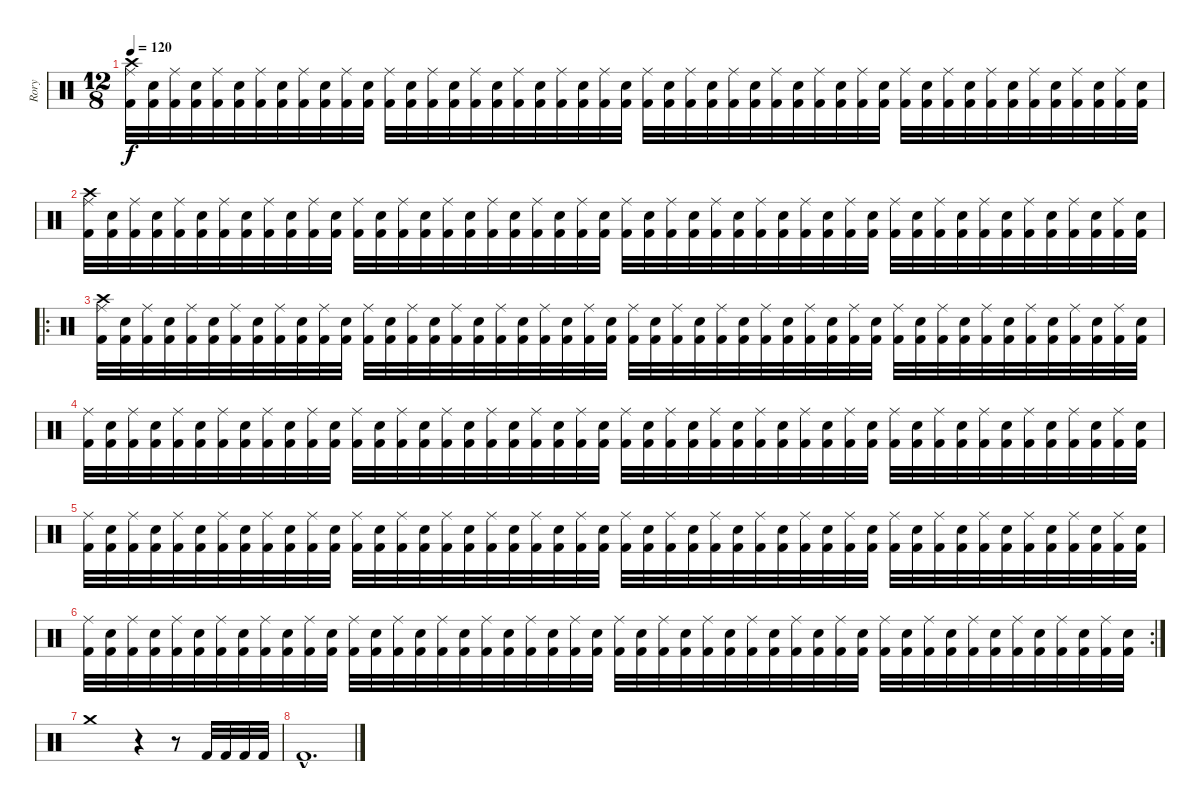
\track ("Rory" "Rory") {instrument percussion}
\staff {score}
\articulation defaults
\ts (12 8)
\tempo 120
\clef neutral
\ks c
("Kick (hit) 2" "Crash high (hit)" "Ride (middle)").32{dy f} ("Kick (hit) 2" "Electric Snare (hit)").32 ("Kick (hit) 2" "Ride (middle)").32 ("Kick (hit) 2" "Electric Snare (hit)").32 ("Kick (hit) 2" "Ride (middle)").32 ("Kick (hit) 2" "Electric Snare (hit)").32 ("Kick (hit) 2" "Ride (middle)").32 ("Kick (hit) 2" "Electric Snare (hit)").32 ("Kick (hit) 2" "Ride (middle)").32 ("Kick (hit) 2" "Electric Snare (hit)").32 ("Kick (hit) 2" "Ride (middle)").32 ("Kick (hit) 2" "Electric Snare (hit)").32 ("Kick (hit) 2" "Ride (middle)").32 ("Kick (hit) 2" "Electric Snare (hit)").32 ("Kick (hit) 2" "Ride (middle)").32 ("Kick (hit) 2" "Electric Snare (hit)").32 ("Kick (hit) 2" "Ride (middle)").32 ("Kick (hit) 2" "Electric Snare (hit)").32 ("Kick (hit) 2" "Ride (middle)").32 ("Kick (hit) 2" "Electric Snare (hit)").32 ("Kick (hit) 2" "Ride (middle)").32 ("Kick (hit) 2" "Electric Snare (hit)").32 ("Kick (hit) 2" "Ride (middle)").32 ("Kick (hit) 2" "Electric Snare (hit)").32 ("Kick (hit) 2" "Ride (middle)").32 ("Kick (hit) 2" "Electric Snare (hit)").32 ("Kick (hit) 2" "Ride (middle)").32 ("Kick (hit) 2" "Electric Snare (hit)").32 ("Kick (hit) 2" "Ride (middle)").32 ("Kick (hit) 2" "Electric Snare (hit)").32 ("Kick (hit) 2" "Ride (middle)").32 ("Kick (hit) 2" "Electric Snare (hit)").32 ("Kick (hit) 2" "Ride (middle)").32 ("Kick (hit) 2" "Electric Snare (hit)").32 ("Kick (hit) 2" "Ride (middle)").32 ("Kick (hit) 2" "Electric Snare (hit)").32 ("Kick (hit) 2" "Ride (middle)").32 ("Kick (hit) 2" "Electric Snare (hit)").32 ("Kick (hit) 2" "Ride (middle)").32 ("Kick (hit) 2" "Electric Snare (hit)").32 ("Kick (hit) 2" "Ride (middle)").32 ("Kick (hit) 2" "Electric Snare (hit)").32 ("Kick (hit) 2" "Ride (middle)").32 ("Kick (hit) 2" "Electric Snare (hit)").32 ("Kick (hit) 2" "Ride (middle)").32 ("Kick (hit) 2" "Electric Snare (hit)").32 ("Kick (hit) 2" "Ride (middle)").32 ("Kick (hit) 2" "Electric Snare (hit)").32 |
("Kick (hit) 2" "Crash high (hit)" "Ride (middle)").32 ("Kick (hit) 2" "Electric Snare (hit)").32 ("Kick (hit) 2" "Ride (middle)").32 ("Kick (hit) 2" "Electric Snare (hit)").32 ("Kick (hit) 2" "Ride (middle)").32 ("Kick (hit) 2" "Electric Snare (hit)").32 ("Kick (hit) 2" "Ride (middle)").32 ("Kick (hit) 2" "Electric Snare (hit)").32 ("Kick (hit) 2" "Ride (middle)").32 ("Kick (hit) 2" "Electric Snare (hit)").32 ("Kick (hit) 2" "Ride (middle)").32 ("Kick (hit) 2" "Electric Snare (hit)").32 ("Kick (hit) 2" "Ride (middle)").32 ("Kick (hit) 2" "Electric Snare (hit)").32 ("Kick (hit) 2" "Ride (middle)").32 ("Kick (hit) 2" "Electric Snare (hit)").32 ("Kick (hit) 2" "Ride (middle)").32 ("Kick (hit) 2" "Electric Snare (hit)").32 ("Kick (hit) 2" "Ride (middle)").32 ("Kick (hit) 2" "Electric Snare (hit)").32 ("Kick (hit) 2" "Ride (middle)").32 ("Kick (hit) 2" "Electric Snare (hit)").32 ("Kick (hit) 2" "Ride (middle)").32 ("Kick (hit) 2" "Electric Snare (hit)").32 ("Kick (hit) 2" "Ride (middle)").32 ("Kick (hit) 2" "Electric Snare (hit)").32 ("Kick (hit) 2" "Ride (middle)").32 ("Kick (hit) 2" "Electric Snare (hit)").32 ("Kick (hit) 2" "Ride (middle)").32 ("Kick (hit) 2" "Electric Snare (hit)").32 ("Kick (hit) 2" "Ride (middle)").32 ("Kick (hit) 2" "Electric Snare (hit)").32 ("Kick (hit) 2" "Ride (middle)").32 ("Kick (hit) 2" "Electric Snare (hit)").32 ("Kick (hit) 2" "Ride (middle)").32 ("Kick (hit) 2" "Electric Snare (hit)").32 ("Kick (hit) 2" "Ride (middle)").32 ("Kick (hit) 2" "Electric Snare (hit)").32 ("Kick (hit) 2" "Ride (middle)").32 ("Kick (hit) 2" "Electric Snare (hit)").32 ("Kick (hit) 2" "Ride (middle)").32 ("Kick (hit) 2" "Electric Snare (hit)").32 ("Kick (hit) 2" "Ride (middle)").32 ("Kick (hit) 2" "Electric Snare (hit)").32 ("Kick (hit) 2" "Ride (middle)").32 ("Kick (hit) 2" "Electric Snare (hit)").32 ("Kick (hit) 2" "Ride (middle)").32 ("Kick (hit) 2" "Electric Snare (hit)").32 |
\ro
("Kick (hit) 2" "Crash high (hit)" "Ride (middle)").32 ("Kick (hit) 2" "Electric Snare (hit)").32 ("Kick (hit) 2" "Ride (middle)").32 ("Kick (hit) 2" "Electric Snare (hit)").32 ("Kick (hit) 2" "Ride (middle)").32 ("Kick (hit) 2" "Electric Snare (hit)").32 ("Kick (hit) 2" "Ride (middle)").32 ("Kick (hit) 2" "Electric Snare (hit)").32 ("Kick (hit) 2" "Ride (middle)").32 ("Kick (hit) 2" "Electric Snare (hit)").32 ("Kick (hit) 2" "Ride (middle)").32 ("Kick (hit) 2" "Electric Snare (hit)").32 ("Kick (hit) 2" "Ride (middle)").32 ("Kick (hit) 2" "Electric Snare (hit)").32 ("Kick (hit) 2" "Ride (middle)").32 ("Kick (hit) 2" "Electric Snare (hit)").32 ("Kick (hit) 2" "Ride (middle)").32 ("Kick (hit) 2" "Electric Snare (hit)").32 ("Kick (hit) 2" "Ride (middle)").32 ("Kick (hit) 2" "Electric Snare (hit)").32 ("Kick (hit) 2" "Ride (middle)").32 ("Kick (hit) 2" "Electric Snare (hit)").32 ("Kick (hit) 2" "Ride (middle)").32 ("Kick (hit) 2" "Electric Snare (hit)").32 ("Kick (hit) 2" "Ride (middle)").32 ("Kick (hit) 2" "Electric Snare (hit)").32 ("Kick (hit) 2" "Ride (middle)").32 ("Kick (hit) 2" "Electric Snare (hit)").32 ("Kick (hit) 2" "Ride (middle)").32 ("Kick (hit) 2" "Electric Snare (hit)").32 ("Kick (hit) 2" "Ride (middle)").32 ("Kick (hit) 2" "Electric Snare (hit)").32 ("Kick (hit) 2" "Ride (middle)").32 ("Kick (hit) 2" "Electric Snare (hit)").32 ("Kick (hit) 2" "Ride (middle)").32 ("Kick (hit) 2" "Electric Snare (hit)").32 ("Kick (hit) 2" "Ride (middle)").32 ("Kick (hit) 2" "Electric Snare (hit)").32 ("Kick (hit) 2" "Ride (middle)").32 ("Kick (hit) 2" "Electric Snare (hit)").32 ("Kick (hit) 2" "Ride (middle)").32 ("Kick (hit) 2" "Electric Snare (hit)").32 ("Kick (hit) 2" "Ride (middle)").32 ("Kick (hit) 2" "Electric Snare (hit)").32 ("Kick (hit) 2" "Ride (middle)").32 ("Kick (hit) 2" "Electric Snare (hit)").32 ("Kick (hit) 2" "Ride (middle)").32 ("Kick (hit) 2" "Electric Snare (hit)").32 |
("Kick (hit) 2" "Ride (middle)").32 ("Kick (hit) 2" "Electric Snare (hit)").32 ("Kick (hit) 2" "Ride (middle)").32 ("Kick (hit) 2" "Electric Snare (hit)").32 ("Kick (hit) 2" "Ride (middle)").32 ("Kick (hit) 2" "Electric Snare (hit)").32 ("Kick (hit) 2" "Ride (middle)").32 ("Kick (hit) 2" "Electric Snare (hit)").32 ("Kick (hit) 2" "Ride (middle)").32 ("Kick (hit) 2" "Electric Snare (hit)").32 ("Kick (hit) 2" "Ride (middle)").32 ("Kick (hit) 2" "Electric Snare (hit)").32 ("Kick (hit) 2" "Ride (middle)").32 ("Kick (hit) 2" "Electric Snare (hit)").32 ("Kick (hit) 2" "Ride (middle)").32 ("Kick (hit) 2" "Electric Snare (hit)").32 ("Kick (hit) 2" "Ride (middle)").32 ("Kick (hit) 2" "Electric Snare (hit)").32 ("Kick (hit) 2" "Ride (middle)").32 ("Kick (hit) 2" "Electric Snare (hit)").32 ("Kick (hit) 2" "Ride (middle)").32 ("Kick (hit) 2" "Electric Snare (hit)").32 ("Kick (hit) 2" "Ride (middle)").32 ("Kick (hit) 2" "Electric Snare (hit)").32 ("Kick (hit) 2" "Ride (middle)").32 ("Kick (hit) 2" "Electric Snare (hit)").32 ("Kick (hit) 2" "Ride (middle)").32 ("Kick (hit) 2" "Electric Snare (hit)").32 ("Kick (hit) 2" "Ride (middle)").32 ("Kick (hit) 2" "Electric Snare (hit)").32 ("Kick (hit) 2" "Ride (middle)").32 ("Kick (hit) 2" "Electric Snare (hit)").32 ("Kick (hit) 2" "Ride (middle)").32 ("Kick (hit) 2" "Electric Snare (hit)").32 ("Kick (hit) 2" "Ride (middle)").32 ("Kick (hit) 2" "Electric Snare (hit)").32 ("Kick (hit) 2" "Ride (middle)").32 ("Kick (hit) 2" "Electric Snare (hit)").32 ("Kick (hit) 2" "Ride (middle)").32 ("Kick (hit) 2" "Electric Snare (hit)").32 ("Kick (hit) 2" "Ride (middle)").32 ("Kick (hit) 2" "Electric Snare (hit)").32 ("Kick (hit) 2" "Ride (middle)").32 ("Kick (hit) 2" "Electric Snare (hit)").32 ("Kick (hit) 2" "Ride (middle)").32 ("Kick (hit) 2" "Electric Snare (hit)").32 ("Kick (hit) 2" "Ride (middle)").32 ("Kick (hit) 2" "Electric Snare (hit)").32 |
("Kick (hit) 2" "Ride (middle)").32 ("Kick (hit) 2" "Electric Snare (hit)").32 ("Kick (hit) 2" "Ride (middle)").32 ("Kick (hit) 2" "Electric Snare (hit)").32 ("Kick (hit) 2" "Ride (middle)").32 ("Kick (hit) 2" "Electric Snare (hit)").32 ("Kick (hit) 2" "Ride (middle)").32 ("Kick (hit) 2" "Electric Snare (hit)").32 ("Kick (hit) 2" "Ride (middle)").32 ("Kick (hit) 2" "Electric Snare (hit)").32 ("Kick (hit) 2" "Ride (middle)").32 ("Kick (hit) 2" "Electric Snare (hit)").32 ("Kick (hit) 2" "Ride (middle)").32 ("Kick (hit) 2" "Electric Snare (hit)").32 ("Kick (hit) 2" "Ride (middle)").32 ("Kick (hit) 2" "Electric Snare (hit)").32 ("Kick (hit) 2" "Ride (middle)").32 ("Kick (hit) 2" "Electric Snare (hit)").32 ("Kick (hit) 2" "Ride (middle)").32 ("Kick (hit) 2" "Electric Snare (hit)").32 ("Kick (hit) 2" "Ride (middle)").32 ("Kick (hit) 2" "Electric Snare (hit)").32 ("Kick (hit) 2" "Ride (middle)").32 ("Kick (hit) 2" "Electric Snare (hit)").32 ("Kick (hit) 2" "Ride (middle)").32 ("Kick (hit) 2" "Electric Snare (hit)").32 ("Kick (hit) 2" "Ride (middle)").32 ("Kick (hit) 2" "Electric Snare (hit)").32 ("Kick (hit) 2" "Ride (middle)").32 ("Kick (hit) 2" "Electric Snare (hit)").32 ("Kick (hit) 2" "Ride (middle)").32 ("Kick (hit) 2" "Electric Snare (hit)").32 ("Kick (hit) 2" "Ride (middle)").32 ("Kick (hit) 2" "Electric Snare (hit)").32 ("Kick (hit) 2" "Ride (middle)").32 ("Kick (hit) 2" "Electric Snare (hit)").32 ("Kick (hit) 2" "Ride (middle)").32 ("Kick (hit) 2" "Electric Snare (hit)").32 ("Kick (hit) 2" "Ride (middle)").32 ("Kick (hit) 2" "Electric Snare (hit)").32 ("Kick (hit) 2" "Ride (middle)").32 ("Kick (hit) 2" "Electric Snare (hit)").32 ("Kick (hit) 2" "Ride (middle)").32 ("Kick (hit) 2" "Electric Snare (hit)").32 ("Kick (hit) 2" "Ride (middle)").32 ("Kick (hit) 2" "Electric Snare (hit)").32 ("Kick (hit) 2" "Ride (middle)").32 ("Kick (hit) 2" "Electric Snare (hit)").32 |
\rc 2
("Kick (hit) 2" "Ride (middle)").32 ("Kick (hit) 2" "Electric Snare (hit)").32 ("Kick (hit) 2" "Ride (middle)").32 ("Kick (hit) 2" "Electric Snare (hit)").32 ("Kick (hit) 2" "Ride (middle)").32 ("Kick (hit) 2" "Electric Snare (hit)").32 ("Kick (hit) 2" "Ride (middle)").32 ("Kick (hit) 2" "Electric Snare (hit)").32 ("Kick (hit) 2" "Ride (middle)").32 ("Kick (hit) 2" "Electric Snare (hit)").32 ("Kick (hit) 2" "Ride (middle)").32 ("Kick (hit) 2" "Electric Snare (hit)").32 ("Kick (hit) 2" "Ride (middle)").32 ("Kick (hit) 2" "Electric Snare (hit)").32 ("Kick (hit) 2" "Ride (middle)").32 ("Kick (hit) 2" "Electric Snare (hit)").32 ("Kick (hit) 2" "Ride (middle)").32 ("Kick (hit) 2" "Electric Snare (hit)").32 ("Kick (hit) 2" "Ride (middle)").32 ("Kick (hit) 2" "Electric Snare (hit)").32 ("Kick (hit) 2" "Ride (middle)").32 ("Kick (hit) 2" "Electric Snare (hit)").32 ("Kick (hit) 2" "Ride (middle)").32 ("Kick (hit) 2" "Electric Snare (hit)").32 ("Kick (hit) 2" "Ride (middle)").32 ("Kick (hit) 2" "Electric Snare (hit)").32 ("Kick (hit) 2" "Ride (middle)").32 ("Kick (hit) 2" "Electric Snare (hit)").32 ("Kick (hit) 2" "Ride (middle)").32 ("Kick (hit) 2" "Electric Snare (hit)").32 ("Kick (hit) 2" "Ride (middle)").32 ("Kick (hit) 2" "Electric Snare (hit)").32 ("Kick (hit) 2" "Ride (middle)").32 ("Kick (hit) 2" "Electric Snare (hit)").32 ("Kick (hit) 2" "Ride (middle)").32 ("Kick (hit) 2" "Electric Snare (hit)").32 ("Kick (hit) 2" "Ride (middle)").32 ("Kick (hit) 2" "Electric Snare (hit)").32 ("Kick (hit) 2" "Ride (middle)").32 ("Kick (hit) 2" "Electric Snare (hit)").32 ("Kick (hit) 2" "Ride (middle)").32 ("Kick (hit) 2" "Electric Snare (hit)").32 ("Kick (hit) 2" "Ride (middle)").32 ("Kick (hit) 2" "Electric Snare (hit)").32 ("Kick (hit) 2" "Ride (middle)").32 ("Kick (hit) 2" "Electric Snare (hit)").32 ("Kick (hit) 2" "Ride (middle)").32 ("Kick (hit) 2" "Electric Snare (hit)").32 |
"Crash medium (hit)".1 r.4 r.8 "Kick (hit) 2".32 "Kick (hit) 2".32 "Kick (hit) 2".32 "Kick (hit) 2".32 |
"Kick (hit) 2"{hac}.1{d}
